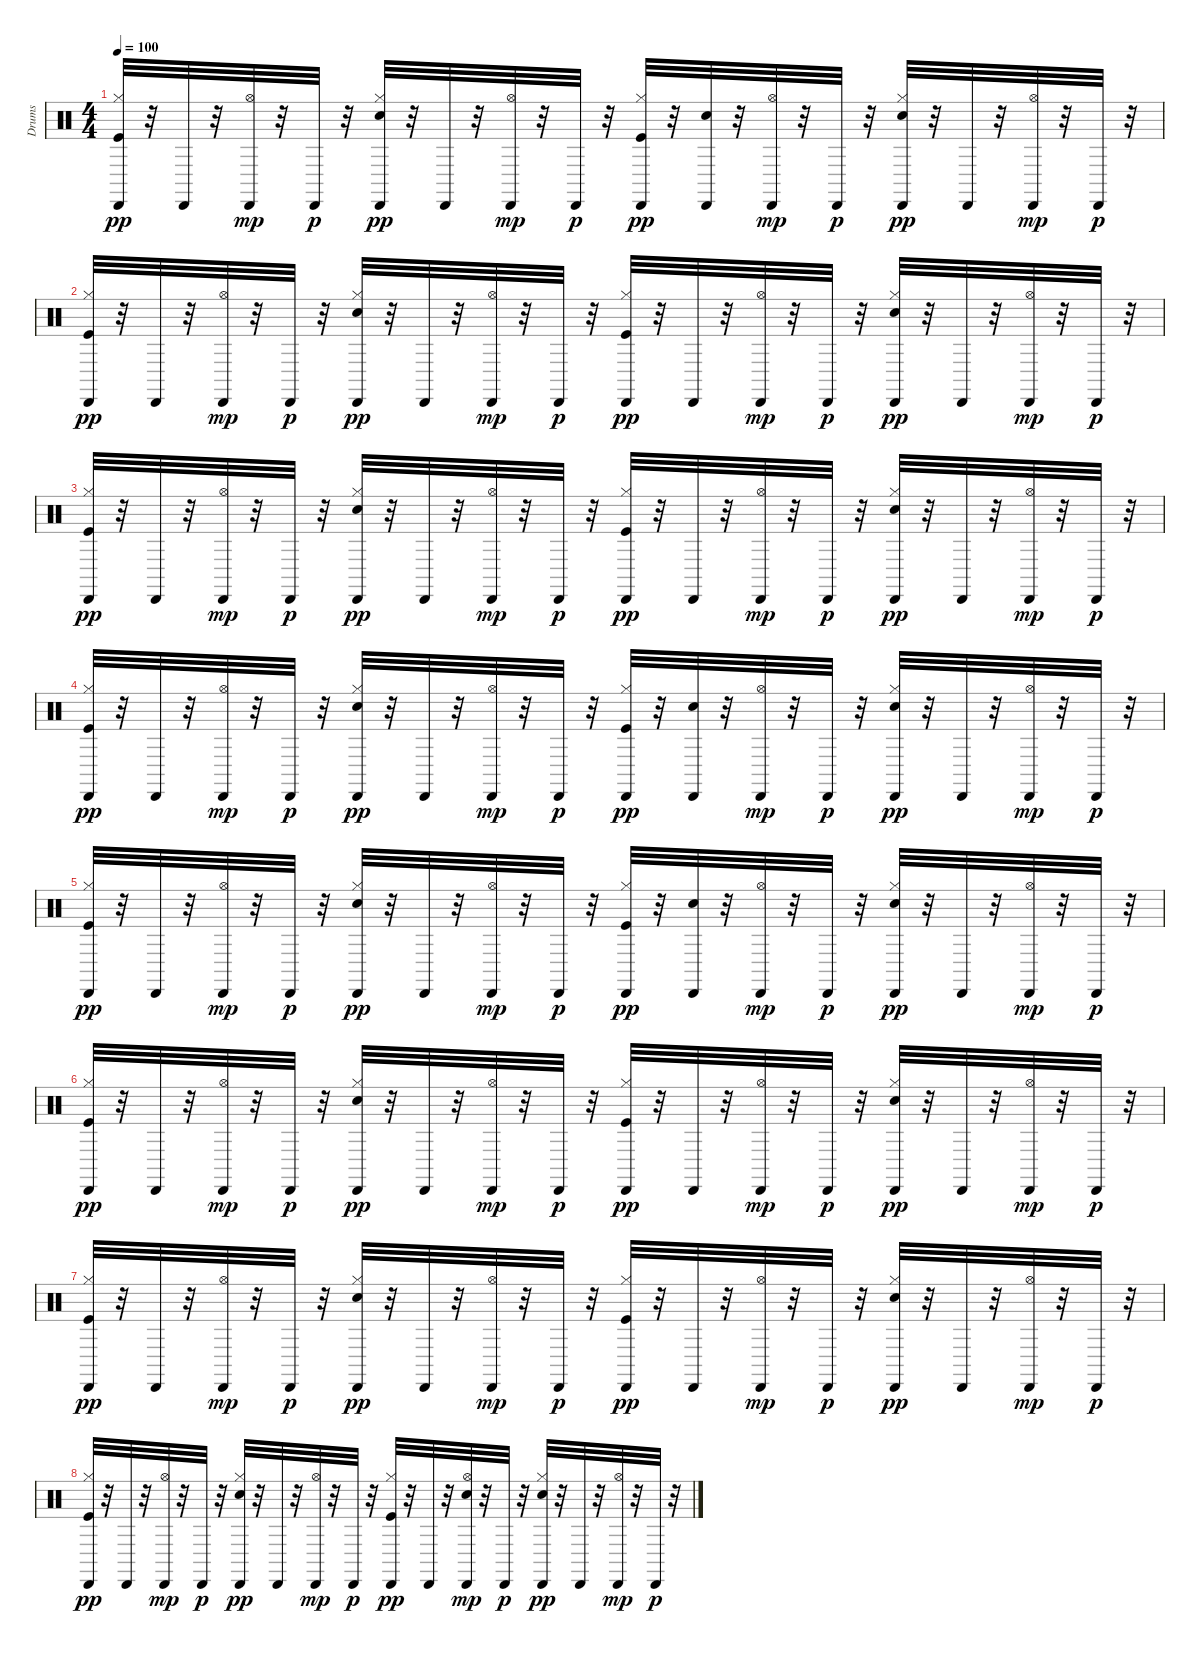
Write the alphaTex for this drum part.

\track ("Drums" "Drums") {instrument percussion}
\staff {score}
\articulation defaults
\ts (4 4)
\tempo 100
\clef neutral
\ks c
("Kick (hit)" "Hi-Hat (closed)" "Cabasa (hit)").32{dy pp} r.32 "Cabasa (hit)".32 r.32 ("Hi-Hat (open)" "Cabasa (hit)").32{dy mp} r.32 "Cabasa (hit)".32{dy p} r.32 ("Electric Snare (hit)" "Hi-Hat (closed)" "Cabasa (hit)").32{dy pp} r.32 "Cabasa (hit)".32 r.32 ("Hi-Hat (open)" "Cabasa (hit)").32{dy mp} r.32 "Cabasa (hit)".32{dy p} r.32 ("Kick (hit)" "Hi-Hat (closed)" "Cabasa (hit)").32{dy pp} r.32 ("Electric Snare (hit)" "Cabasa (hit)").32 r.32 ("Hi-Hat (open)" "Cabasa (hit)").32{dy mp} r.32 "Cabasa (hit)".32{dy p} r.32 ("Electric Snare (hit)" "Hi-Hat (closed)" "Cabasa (hit)").32{dy pp} r.32 "Cabasa (hit)".32 r.32 ("Hi-Hat (open)" "Cabasa (hit)").32{dy mp} r.32 "Cabasa (hit)".32{dy p} r.32 |
("Kick (hit)" "Hi-Hat (closed)" "Cabasa (hit)").32{dy pp} r.32 "Cabasa (hit)".32 r.32 ("Hi-Hat (open)" "Cabasa (hit)").32{dy mp} r.32 "Cabasa (hit)".32{dy p} r.32 ("Electric Snare (hit)" "Hi-Hat (closed)" "Cabasa (hit)").32{dy pp} r.32 "Cabasa (hit)".32 r.32 ("Hi-Hat (open)" "Cabasa (hit)").32{dy mp} r.32 "Cabasa (hit)".32{dy p} r.32 ("Kick (hit)" "Hi-Hat (closed)" "Cabasa (hit)").32{dy pp} r.32 "Cabasa (hit)".32 r.32 ("Hi-Hat (open)" "Cabasa (hit)").32{dy mp} r.32 "Cabasa (hit)".32{dy p} r.32 ("Electric Snare (hit)" "Hi-Hat (closed)" "Cabasa (hit)").32{dy pp} r.32 "Cabasa (hit)".32 r.32 ("Hi-Hat (open)" "Cabasa (hit)").32{dy mp} r.32 "Cabasa (hit)".32{dy p} r.32 |
("Kick (hit)" "Hi-Hat (closed)" "Cabasa (hit)").32{dy pp} r.32 "Cabasa (hit)".32 r.32 ("Hi-Hat (open)" "Cabasa (hit)").32{dy mp} r.32 "Cabasa (hit)".32{dy p} r.32 ("Electric Snare (hit)" "Hi-Hat (closed)" "Cabasa (hit)").32{dy pp} r.32 "Cabasa (hit)".32 r.32 ("Hi-Hat (open)" "Cabasa (hit)").32{dy mp} r.32 "Cabasa (hit)".32{dy p} r.32 ("Kick (hit)" "Hi-Hat (closed)" "Cabasa (hit)").32{dy pp} r.32 "Cabasa (hit)".32 r.32 ("Hi-Hat (open)" "Cabasa (hit)").32{dy mp} r.32 "Cabasa (hit)".32{dy p} r.32 ("Electric Snare (hit)" "Hi-Hat (closed)" "Cabasa (hit)").32{dy pp} r.32 "Cabasa (hit)".32 r.32 ("Hi-Hat (open)" "Cabasa (hit)").32{dy mp} r.32 "Cabasa (hit)".32{dy p} r.32 |
("Kick (hit)" "Hi-Hat (closed)" "Cabasa (hit)").32{dy pp} r.32 "Cabasa (hit)".32 r.32 ("Hi-Hat (open)" "Cabasa (hit)").32{dy mp} r.32 "Cabasa (hit)".32{dy p} r.32 ("Electric Snare (hit)" "Hi-Hat (closed)" "Cabasa (hit)").32{dy pp} r.32 "Cabasa (hit)".32 r.32 ("Hi-Hat (open)" "Cabasa (hit)").32{dy mp} r.32 "Cabasa (hit)".32{dy p} r.32 ("Kick (hit)" "Hi-Hat (closed)" "Cabasa (hit)").32{dy pp} r.32 ("Electric Snare (hit)" "Cabasa (hit)").32 r.32 ("Hi-Hat (open)" "Cabasa (hit)").32{dy mp} r.32 "Cabasa (hit)".32{dy p} r.32 ("Electric Snare (hit)" "Hi-Hat (closed)" "Cabasa (hit)").32{dy pp} r.32 "Cabasa (hit)".32 r.32 ("Hi-Hat (open)" "Cabasa (hit)").32{dy mp} r.32 "Cabasa (hit)".32{dy p} r.32 |
("Kick (hit)" "Hi-Hat (closed)" "Cabasa (hit)").32{dy pp} r.32 "Cabasa (hit)".32 r.32 ("Hi-Hat (open)" "Cabasa (hit)").32{dy mp} r.32 "Cabasa (hit)".32{dy p} r.32 ("Electric Snare (hit)" "Hi-Hat (closed)" "Cabasa (hit)").32{dy pp} r.32 "Cabasa (hit)".32 r.32 ("Hi-Hat (open)" "Cabasa (hit)").32{dy mp} r.32 "Cabasa (hit)".32{dy p} r.32 ("Kick (hit)" "Hi-Hat (closed)" "Cabasa (hit)").32{dy pp} r.32 ("Electric Snare (hit)" "Cabasa (hit)").32 r.32 ("Hi-Hat (open)" "Cabasa (hit)").32{dy mp} r.32 "Cabasa (hit)".32{dy p} r.32 ("Electric Snare (hit)" "Hi-Hat (closed)" "Cabasa (hit)").32{dy pp} r.32 "Cabasa (hit)".32 r.32 ("Hi-Hat (open)" "Cabasa (hit)").32{dy mp} r.32 "Cabasa (hit)".32{dy p} r.32 |
("Kick (hit)" "Hi-Hat (closed)" "Cabasa (hit)").32{dy pp} r.32 "Cabasa (hit)".32 r.32 ("Hi-Hat (open)" "Cabasa (hit)").32{dy mp} r.32 "Cabasa (hit)".32{dy p} r.32 ("Electric Snare (hit)" "Hi-Hat (closed)" "Cabasa (hit)").32{dy pp} r.32 "Cabasa (hit)".32 r.32 ("Hi-Hat (open)" "Cabasa (hit)").32{dy mp} r.32 "Cabasa (hit)".32{dy p} r.32 ("Kick (hit)" "Hi-Hat (closed)" "Cabasa (hit)").32{dy pp} r.32 "Cabasa (hit)".32 r.32 ("Hi-Hat (open)" "Cabasa (hit)").32{dy mp} r.32 "Cabasa (hit)".32{dy p} r.32 ("Electric Snare (hit)" "Hi-Hat (closed)" "Cabasa (hit)").32{dy pp} r.32 "Cabasa (hit)".32 r.32 ("Hi-Hat (open)" "Cabasa (hit)").32{dy mp} r.32 "Cabasa (hit)".32{dy p} r.32 |
("Kick (hit)" "Hi-Hat (closed)" "Cabasa (hit)").32{dy pp} r.32 "Cabasa (hit)".32 r.32 ("Hi-Hat (open)" "Cabasa (hit)").32{dy mp} r.32 "Cabasa (hit)".32{dy p} r.32 ("Electric Snare (hit)" "Hi-Hat (closed)" "Cabasa (hit)").32{dy pp} r.32 "Cabasa (hit)".32 r.32 ("Hi-Hat (open)" "Cabasa (hit)").32{dy mp} r.32 "Cabasa (hit)".32{dy p} r.32 ("Kick (hit)" "Hi-Hat (closed)" "Cabasa (hit)").32{dy pp} r.32 "Cabasa (hit)".32 r.32 ("Hi-Hat (open)" "Cabasa (hit)").32{dy mp} r.32 "Cabasa (hit)".32{dy p} r.32 ("Electric Snare (hit)" "Hi-Hat (closed)" "Cabasa (hit)").32{dy pp} r.32 "Cabasa (hit)".32 r.32 ("Hi-Hat (open)" "Cabasa (hit)").32{dy mp} r.32 "Cabasa (hit)".32{dy p} r.32 |
("Kick (hit)" "Hi-Hat (closed)" "Cabasa (hit)").32{dy pp} r.32 "Cabasa (hit)".32 r.32 ("Hi-Hat (open)" "Cabasa (hit)").32{dy mp} r.32 "Cabasa (hit)".32{dy p} r.32 ("Electric Snare (hit)" "Hi-Hat (closed)" "Cabasa (hit)").32{dy pp} r.32 "Cabasa (hit)".32 r.32 ("Hi-Hat (open)" "Cabasa (hit)").32{dy mp} r.32 "Cabasa (hit)".32{dy p} r.32 ("Kick (hit)" "Hi-Hat (closed)" "Cabasa (hit)").32{dy pp} r.32 "Cabasa (hit)".32 r.32 ("Electric Snare (hit)" "Hi-Hat (open)" "Cabasa (hit)").32{dy mp} r.32 "Cabasa (hit)".32{dy p} r.32 ("Electric Snare (hit)" "Hi-Hat (closed)" "Cabasa (hit)").32{dy pp} r.32 "Cabasa (hit)".32 r.32 ("Hi-Hat (open)" "Cabasa (hit)").32{dy mp} r.32 "Cabasa (hit)".32{dy p} r.32
